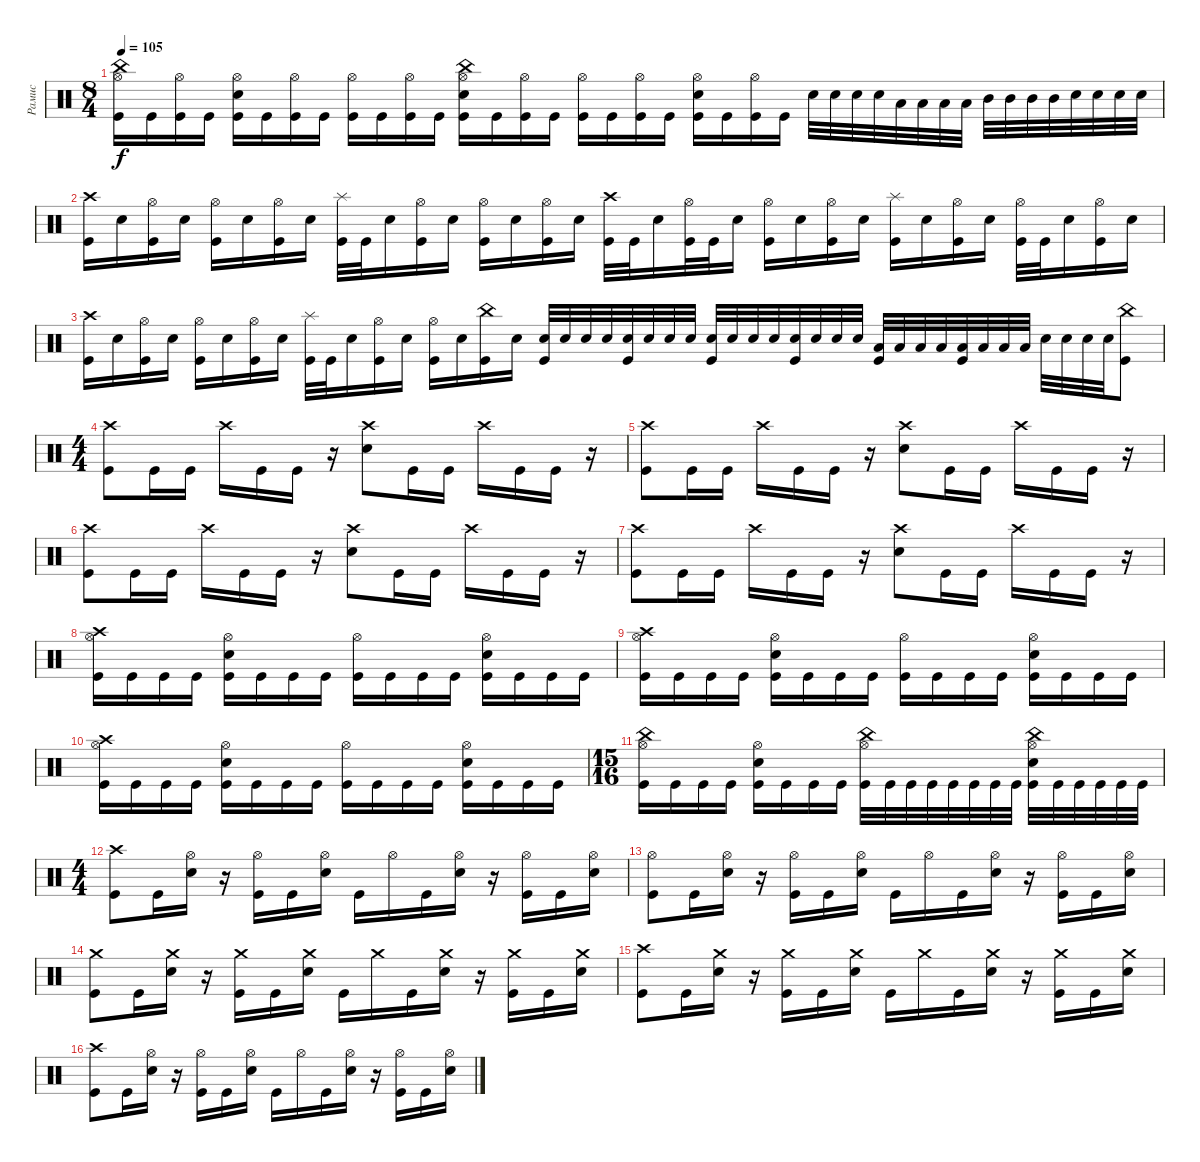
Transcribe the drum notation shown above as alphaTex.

\track ("Рамис" "Рамис") {instrument percussion}
\staff {score}
\articulation defaults
\ts (8 4)
\tempo 105
\clef neutral
\ks c
("Hi-Hat (open)" "China (hit)" "Kick (hit)").16{dy f} "Kick (hit)".16 ("Hi-Hat (open)" "Kick (hit)").16 "Kick (hit)".16 ("Hi-Hat (open)" "Electric Snare (hit)" "Kick (hit)").16 "Kick (hit)".16 ("Hi-Hat (open)" "Kick (hit)").16 "Kick (hit)".16 ("Hi-Hat (open)" "Kick (hit)").16 "Kick (hit)".16 ("Hi-Hat (open)" "Kick (hit)").16 "Kick (hit)".16 ("Hi-Hat (open)" "China (hit)" "Electric Snare (hit)" "Kick (hit)").16 "Kick (hit)".16 ("Hi-Hat (open)" "Kick (hit)").16 "Kick (hit)".16 ("Hi-Hat (open)" "Kick (hit)").16 "Kick (hit)".16 ("Hi-Hat (open)" "Kick (hit)").16 "Kick (hit)".16 ("Hi-Hat (open)" "Electric Snare (hit)" "Kick (hit)").16 "Kick (hit)".16 ("Hi-Hat (open)" "Kick (hit)").16 "Kick (hit)".16 "Electric Snare (hit)".32 "Electric Snare (hit)".32 "Electric Snare (hit)".32 "Electric Snare (hit)".32 "Low Tom (hit)".32 "Low Tom (hit)".32 "Low Tom (hit)".32 "Low Tom (hit)".32 "Mid Tom (hit)".32 "Mid Tom (hit)".32 "Mid Tom (hit)".32 "Mid Tom (hit)".32 "Electric Snare (hit)".32 "Electric Snare (hit)".32 "Electric Snare (hit)".32 "Electric Snare (hit)".32 |
("Crash high (hit)" "Kick (hit)").16 "Electric Snare (hit)".16 ("Hi-Hat (open)" "Kick (hit)").16 "Electric Snare (hit)".16 ("Hi-Hat (open)" "Kick (hit)").16 "Electric Snare (hit)".16 ("Hi-Hat (open)" "Kick (hit)").16 "Electric Snare (hit)".16 ("Splash (hit)" "Kick (hit)").32 "Kick (hit)".32 "Electric Snare (hit)".16 ("Hi-Hat (open)" "Kick (hit)").16 "Electric Snare (hit)".16 ("Hi-Hat (open)" "Kick (hit)").16 "Electric Snare (hit)".16 ("Hi-Hat (open)" "Kick (hit)").16 "Electric Snare (hit)".16 ("Crash high (hit)" "Kick (hit)").32 "Kick (hit)".32 "Electric Snare (hit)".16 ("Hi-Hat (open)" "Kick (hit)").32 "Kick (hit)".32 "Electric Snare (hit)".16 ("Hi-Hat (open)" "Kick (hit)").16 "Electric Snare (hit)".16 ("Hi-Hat (open)" "Kick (hit)").16 "Electric Snare (hit)".16 ("Splash (hit)" "Kick (hit)").16 "Electric Snare (hit)".16 ("Hi-Hat (open)" "Kick (hit)").16 "Electric Snare (hit)".16 ("Hi-Hat (open)" "Kick (hit)").32 "Kick (hit)".32 "Electric Snare (hit)".16 ("Hi-Hat (open)" "Kick (hit)").16 "Electric Snare (hit)".16 |
("Crash high (hit)" "Kick (hit)").16 "Electric Snare (hit)".16 ("Hi-Hat (open)" "Kick (hit)").16 "Electric Snare (hit)".16 ("Hi-Hat (open)" "Kick (hit)").16 "Electric Snare (hit)".16 ("Hi-Hat (open)" "Kick (hit)").16 "Electric Snare (hit)".16 ("Splash (hit)" "Kick (hit)").32 "Kick (hit)".32 "Electric Snare (hit)".16 ("Hi-Hat (open)" "Kick (hit)").16 "Electric Snare (hit)".16 ("Hi-Hat (open)" "Kick (hit)").16 "Electric Snare (hit)".16 ("China (hit)" "Kick (hit)").16 "Electric Snare (hit)".16 ("Electric Snare (hit)" "Kick (hit)").32 "Electric Snare (hit)".32 "Electric Snare (hit)".32 "Electric Snare (hit)".32 ("Electric Snare (hit)" "Kick (hit)").32 "Electric Snare (hit)".32 "Electric Snare (hit)".32 "Electric Snare (hit)".32 ("Electric Snare (hit)" "Kick (hit)").32 "Electric Snare (hit)".32 "Electric Snare (hit)".32 "Electric Snare (hit)".32 ("Electric Snare (hit)" "Kick (hit)").32 "Electric Snare (hit)".32 "Electric Snare (hit)".32 "Electric Snare (hit)".32 ("Low Tom (hit)" "Kick (hit)").32 "Low Tom (hit)".32 "Low Tom (hit)".32 "Low Tom (hit)".32 ("Low Tom (hit)" "Kick (hit)").32 "Low Tom (hit)".32 "Low Tom (hit)".32 "Low Tom (hit)".32 "Electric Snare (hit)".32 "Electric Snare (hit)".32 "Electric Snare (hit)".32 "Electric Snare (hit)".32 ("China (hit)" "Kick (hit)").8 |
\ts (4 4)
("Crash high (hit)" "Kick (hit)").8 "Kick (hit)".16 "Kick (hit)".16 "Crash high (hit)".16 "Kick (hit)".16 "Kick (hit)".16 r.16 ("Crash high (hit)" "Electric Snare (hit)").8 "Kick (hit)".16 "Kick (hit)".16 "Crash high (hit)".16 "Kick (hit)".16 "Kick (hit)".16 r.16 |
("Crash high (hit)" "Kick (hit)").8 "Kick (hit)".16 "Kick (hit)".16 "Crash high (hit)".16 "Kick (hit)".16 "Kick (hit)".16 r.16 ("Crash high (hit)" "Electric Snare (hit)").8 "Kick (hit)".16 "Kick (hit)".16 "Crash high (hit)".16 "Kick (hit)".16 "Kick (hit)".16 r.16 |
("Crash high (hit)" "Kick (hit)").8 "Kick (hit)".16 "Kick (hit)".16 "Crash high (hit)".16 "Kick (hit)".16 "Kick (hit)".16 r.16 ("Crash high (hit)" "Electric Snare (hit)").8 "Kick (hit)".16 "Kick (hit)".16 "Crash high (hit)".16 "Kick (hit)".16 "Kick (hit)".16 r.16 |
("Crash high (hit)" "Kick (hit)").8 "Kick (hit)".16 "Kick (hit)".16 "Crash high (hit)".16 "Kick (hit)".16 "Kick (hit)".16 r.16 ("Crash high (hit)" "Electric Snare (hit)").8 "Kick (hit)".16 "Kick (hit)".16 "Crash high (hit)".16 "Kick (hit)".16 "Kick (hit)".16 r.16 |
("Hi-Hat (open)" "Crash high (hit)" "Kick (hit)").16 "Kick (hit)".16 "Kick (hit)".16 "Kick (hit)".16 ("Hi-Hat (open)" "Electric Snare (hit)" "Kick (hit)").16 "Kick (hit)".16 "Kick (hit)".16 "Kick (hit)".16 ("Hi-Hat (open)" "Kick (hit)").16 "Kick (hit)".16 "Kick (hit)".16 "Kick (hit)".16 ("Hi-Hat (open)" "Electric Snare (hit)" "Kick (hit)").16 "Kick (hit)".16 "Kick (hit)".16 "Kick (hit)".16 |
("Hi-Hat (open)" "Crash high (hit)" "Kick (hit)").16 "Kick (hit)".16 "Kick (hit)".16 "Kick (hit)".16 ("Hi-Hat (open)" "Electric Snare (hit)" "Kick (hit)").16 "Kick (hit)".16 "Kick (hit)".16 "Kick (hit)".16 ("Hi-Hat (open)" "Kick (hit)").16 "Kick (hit)".16 "Kick (hit)".16 "Kick (hit)".16 ("Hi-Hat (open)" "Electric Snare (hit)" "Kick (hit)").16 "Kick (hit)".16 "Kick (hit)".16 "Kick (hit)".16 |
("Hi-Hat (open)" "Crash high (hit)" "Kick (hit)").16 "Kick (hit)".16 "Kick (hit)".16 "Kick (hit)".16 ("Hi-Hat (open)" "Electric Snare (hit)" "Kick (hit)").16 "Kick (hit)".16 "Kick (hit)".16 "Kick (hit)".16 ("Hi-Hat (open)" "Kick (hit)").16 "Kick (hit)".16 "Kick (hit)".16 "Kick (hit)".16 ("Hi-Hat (open)" "Electric Snare (hit)" "Kick (hit)").16 "Kick (hit)".16 "Kick (hit)".16 "Kick (hit)".16 |
\ts (15 16)
("Hi-Hat (open)" "China (hit)" "Kick (hit)").16 "Kick (hit)".16 "Kick (hit)".16 "Kick (hit)".16 ("Hi-Hat (open)" "Electric Snare (hit)" "Kick (hit)").16 "Kick (hit)".16 "Kick (hit)".16 "Kick (hit)".16 ("Hi-Hat (open)" "China (hit)" "Kick (hit)").32 "Kick (hit)".32 "Kick (hit)".32 "Kick (hit)".32 "Kick (hit)".32 "Kick (hit)".32 "Kick (hit)".32 "Kick (hit)".32 ("Hi-Hat (open)" "China (hit)" "Electric Snare (hit)" "Kick (hit)").32 "Kick (hit)".32 "Kick (hit)".32 "Kick (hit)".32 "Kick (hit)".32 "Kick (hit)".32 |
\ts (4 4)
("Crash high (hit)" "Kick (hit)").8 "Kick (hit)".16 ("Hi-Hat (open)" "Electric Snare (hit)").16 r.16 ("Hi-Hat (open)" "Kick (hit)").16 "Kick (hit)".16 ("Hi-Hat (open)" "Electric Snare (hit)").16 "Kick (hit)".16 "Hi-Hat (open)".16 "Kick (hit)".16 ("Hi-Hat (open)" "Electric Snare (hit)").16 r.16 ("Hi-Hat (open)" "Kick (hit)").16 "Kick (hit)".16 ("Hi-Hat (open)" "Electric Snare (hit)").16 |
("Hi-Hat (open)" "Kick (hit)").8 "Kick (hit)".16 ("Hi-Hat (open)" "Electric Snare (hit)").16 r.16 ("Hi-Hat (open)" "Kick (hit)").16 "Kick (hit)".16 ("Hi-Hat (open)" "Electric Snare (hit)").16 "Kick (hit)".16 "Hi-Hat (open)".16 "Kick (hit)".16 ("Hi-Hat (open)" "Electric Snare (hit)").16 r.16 ("Hi-Hat (open)" "Kick (hit)").16 "Kick (hit)".16 ("Hi-Hat (open)" "Electric Snare (hit)").16 |
("Crash medium (hit)" "Kick (hit)").8 "Kick (hit)".16 ("Crash medium (hit)" "Electric Snare (hit)").16 r.16 ("Crash medium (hit)" "Kick (hit)").16 "Kick (hit)".16 ("Crash medium (hit)" "Electric Snare (hit)").16 "Kick (hit)".16 "Crash medium (hit)".16 "Kick (hit)".16 ("Crash medium (hit)" "Electric Snare (hit)").16 r.16 ("Crash medium (hit)" "Kick (hit)").16 "Kick (hit)".16 ("Crash medium (hit)" "Electric Snare (hit)").16 |
("Crash high (hit)" "Kick (hit)").8 "Kick (hit)".16 ("Crash medium (hit)" "Electric Snare (hit)").16 r.16 ("Crash medium (hit)" "Kick (hit)").16 "Kick (hit)".16 ("Crash medium (hit)" "Electric Snare (hit)").16 "Kick (hit)".16 "Crash medium (hit)".16 "Kick (hit)".16 ("Crash medium (hit)" "Electric Snare (hit)").16 r.16 ("Crash medium (hit)" "Kick (hit)").16 "Kick (hit)".16 ("Crash medium (hit)" "Electric Snare (hit)").16 |
("Crash high (hit)" "Kick (hit)").8 "Kick (hit)".16 ("Hi-Hat (open)" "Electric Snare (hit)").16 r.16 ("Hi-Hat (open)" "Kick (hit)").16 "Kick (hit)".16 ("Hi-Hat (open)" "Electric Snare (hit)").16 "Kick (hit)".16 "Hi-Hat (open)".16 "Kick (hit)".16 ("Hi-Hat (open)" "Electric Snare (hit)").16 r.16 ("Hi-Hat (open)" "Kick (hit)").16 "Kick (hit)".16 ("Hi-Hat (open)" "Electric Snare (hit)").16
